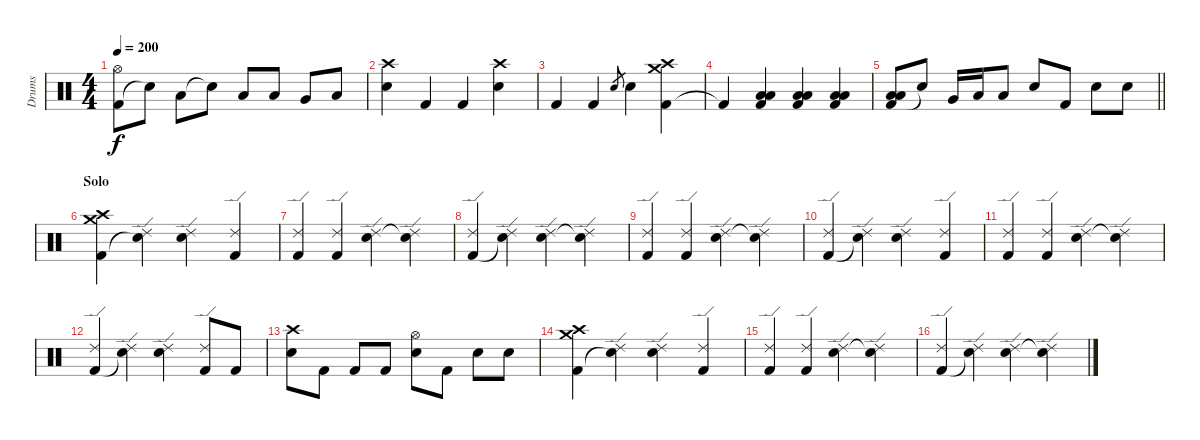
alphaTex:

\track ("Drums" "Drums") {instrument percussion}
\staff {score}
\articulation defaults
\ts (4 4)
\tempo 200
\clef neutral
\ks c
("Kick (hit) 2" "Hi-Hat (open)").8{dy f} "Snare (hit)"{t}.8 "Low Tom (hit)".8 "Snare (hit)"{t}.8 "Low Tom (hit)".8 "Low Tom (hit)".8 "Very Low Tom (hit)".8 "Low Floor Tom (hit)".8 |
("Electric Snare (hit)" "Crash high (hit)").4 "Kick (hit) 2".4 "Kick (hit) 2".4 ("Electric Snare (hit)" "Crash high (hit)").4 |
"Kick (hit) 2".4 "Kick (hit) 2".4 "Electric Snare (hit)".8{gr} "Electric Snare (hit)".4 ("Kick (hit) 2" "Crash high (hit)" "Crash medium (hit)").4 |
"Kick (hit) 2"{t}.4 ("Kick (hit) 2" "Low Tom (hit)" "Low Floor Tom (hit)").4 ("Kick (hit) 2" "Low Tom (hit)" "Low Floor Tom (hit)").4 ("Kick (hit) 2" "Low Tom (hit)" "Low Floor Tom (hit)").4 |
\barLineRight lightlight
("Kick (hit) 2" "Low Tom (hit)" "Low Floor Tom (hit)").8 "Snare (hit)"{t}.8 "Very Low Tom (hit)".16 "Low Tom (hit)".16 "Low Floor Tom (hit)".8 "Electric Snare (hit)".8 "Kick (hit) 2".8 "Electric Snare (hit)".8 "Electric Snare (hit)".8 |
\section ("" "Solo")
("Kick (hit) 2" "Crash medium (hit)" "Crash high (hit)").4 ("Snare (hit)"{t} "Ride (edge) 2").4 ("Electric Snare (hit)" "Ride (edge) 2").4 ("Kick (hit) 2" "Ride (edge) 2").4 |
("Kick (hit) 2" "Ride (edge) 2").4 ("Kick (hit) 2" "Ride (edge) 2").4 ("Electric Snare (hit)" "Ride (edge) 2").4 ("Snare (hit)"{t} "Ride (edge) 2").4 |
("Kick (hit) 2" "Ride (edge) 2").4 ("Snare (hit)"{t} "Ride (edge) 2").4 ("Electric Snare (hit)" "Ride (edge) 2").4 ("Snare (hit)"{t} "Ride (edge) 2").4 |
("Kick (hit) 2" "Ride (edge) 2").4 ("Kick (hit) 2" "Ride (edge) 2").4 ("Electric Snare (hit)" "Ride (edge) 2").4 ("Snare (hit)"{t} "Ride (edge) 2").4 |
("Kick (hit) 2" "Ride (edge) 2").4 ("Snare (hit)"{t} "Ride (edge) 2").4 ("Electric Snare (hit)" "Ride (edge) 2").4 ("Kick (hit) 2" "Ride (edge) 2").4 |
("Kick (hit) 2" "Ride (edge) 2").4 ("Kick (hit) 2" "Ride (edge) 2").4 ("Electric Snare (hit)" "Ride (edge) 2").4 ("Snare (hit)"{t} "Ride (edge) 2").4 |
("Kick (hit) 2" "Ride (edge) 2").4 ("Snare (hit)"{t} "Ride (edge) 2").4 ("Electric Snare (hit)" "Ride (edge) 2").4 ("Kick (hit) 2" "Ride (edge) 2").8 "Kick (hit) 2".8 |
("Electric Snare (hit)" "Crash high (hit)").8 "Kick (hit) 2".8 "Kick (hit) 2".8 "Kick (hit) 2".8 ("Electric Snare (hit)" "Hi-Hat (open)").8 "Kick (hit) 2".8 "Electric Snare (hit)".8 "Electric Snare (hit)".8 |
("Kick (hit) 2" "Crash medium (hit)" "Crash high (hit)").4 ("Snare (hit)"{t} "Ride (edge) 2").4 ("Electric Snare (hit)" "Ride (edge) 2").4 ("Kick (hit) 2" "Ride (edge) 2").4 |
("Kick (hit) 2" "Ride (edge) 2").4 ("Kick (hit) 2" "Ride (edge) 2").4 ("Electric Snare (hit)" "Ride (edge) 2").4 ("Snare (hit)"{t} "Ride (edge) 2").4 |
("Kick (hit) 2" "Ride (edge) 2").4 ("Snare (hit)"{t} "Ride (edge) 2").4 ("Electric Snare (hit)" "Ride (edge) 2").4 ("Snare (hit)"{t} "Ride (edge) 2").4
